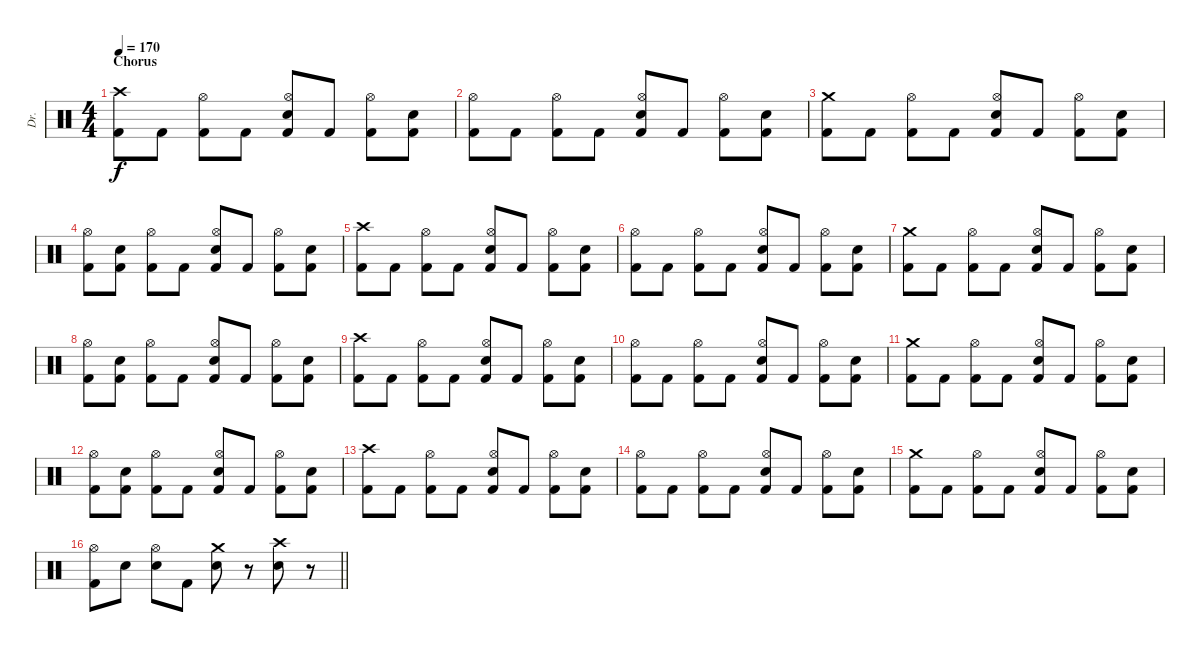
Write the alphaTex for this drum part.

\track ("Dr." "Dr.") {instrument percussion}
\staff {score}
\articulation defaults
\ts (4 4)
\section ("" "Chorus")
\tempo 170
\clef neutral
\ks c
("Crash high (hit)" "Kick (hit) 2").8{dy f} "Kick (hit) 2".8 ("Hi-Hat (open)" "Kick (hit) 2").8 "Kick (hit) 2".8 ("Hi-Hat (open)" "Electric Snare (hit)" "Kick (hit) 2").8 "Kick (hit) 2".8 ("Hi-Hat (open)" "Kick (hit) 2").8 ("Electric Snare (hit)" "Kick (hit) 2").8 |
("Hi-Hat (open)" "Kick (hit) 2").8 "Kick (hit) 2".8 ("Hi-Hat (open)" "Kick (hit) 2").8 "Kick (hit) 2".8 ("Hi-Hat (open)" "Electric Snare (hit)" "Kick (hit) 2").8 "Kick (hit) 2".8 ("Hi-Hat (open)" "Kick (hit) 2").8 ("Electric Snare (hit)" "Kick (hit) 2").8 |
("Crash medium (hit)" "Kick (hit) 2").8 "Kick (hit) 2".8 ("Hi-Hat (open)" "Kick (hit) 2").8 "Kick (hit) 2".8 ("Hi-Hat (open)" "Electric Snare (hit)" "Kick (hit) 2").8 "Kick (hit) 2".8 ("Hi-Hat (open)" "Kick (hit) 2").8 ("Electric Snare (hit)" "Kick (hit) 2").8 |
("Hi-Hat (open)" "Kick (hit) 2").8 ("Electric Snare (hit)" "Kick (hit) 2").8 ("Hi-Hat (open)" "Kick (hit) 2").8 "Kick (hit) 2".8 ("Hi-Hat (open)" "Electric Snare (hit)" "Kick (hit) 2").8 "Kick (hit) 2".8 ("Hi-Hat (open)" "Kick (hit) 2").8 ("Electric Snare (hit)" "Kick (hit) 2").8 |
("Crash high (hit)" "Kick (hit) 2").8 "Kick (hit) 2".8 ("Hi-Hat (open)" "Kick (hit) 2").8 "Kick (hit) 2".8 ("Hi-Hat (open)" "Electric Snare (hit)" "Kick (hit) 2").8 "Kick (hit) 2".8 ("Hi-Hat (open)" "Kick (hit) 2").8 ("Electric Snare (hit)" "Kick (hit) 2").8 |
("Hi-Hat (open)" "Kick (hit) 2").8 "Kick (hit) 2".8 ("Hi-Hat (open)" "Kick (hit) 2").8 "Kick (hit) 2".8 ("Hi-Hat (open)" "Electric Snare (hit)" "Kick (hit) 2").8 "Kick (hit) 2".8 ("Hi-Hat (open)" "Kick (hit) 2").8 ("Electric Snare (hit)" "Kick (hit) 2").8 |
("Crash medium (hit)" "Kick (hit) 2").8 "Kick (hit) 2".8 ("Hi-Hat (open)" "Kick (hit) 2").8 "Kick (hit) 2".8 ("Hi-Hat (open)" "Electric Snare (hit)" "Kick (hit) 2").8 "Kick (hit) 2".8 ("Hi-Hat (open)" "Kick (hit) 2").8 ("Electric Snare (hit)" "Kick (hit) 2").8 |
("Hi-Hat (open)" "Kick (hit) 2").8 ("Electric Snare (hit)" "Kick (hit) 2").8 ("Hi-Hat (open)" "Kick (hit) 2").8 "Kick (hit) 2".8 ("Hi-Hat (open)" "Electric Snare (hit)" "Kick (hit) 2").8 "Kick (hit) 2".8 ("Hi-Hat (open)" "Kick (hit) 2").8 ("Electric Snare (hit)" "Kick (hit) 2").8 |
("Crash high (hit)" "Kick (hit) 2").8 "Kick (hit) 2".8 ("Hi-Hat (open)" "Kick (hit) 2").8 "Kick (hit) 2".8 ("Hi-Hat (open)" "Electric Snare (hit)" "Kick (hit) 2").8 "Kick (hit) 2".8 ("Hi-Hat (open)" "Kick (hit) 2").8 ("Electric Snare (hit)" "Kick (hit) 2").8 |
("Hi-Hat (open)" "Kick (hit) 2").8 "Kick (hit) 2".8 ("Hi-Hat (open)" "Kick (hit) 2").8 "Kick (hit) 2".8 ("Hi-Hat (open)" "Electric Snare (hit)" "Kick (hit) 2").8 "Kick (hit) 2".8 ("Hi-Hat (open)" "Kick (hit) 2").8 ("Electric Snare (hit)" "Kick (hit) 2").8 |
("Crash medium (hit)" "Kick (hit) 2").8 "Kick (hit) 2".8 ("Hi-Hat (open)" "Kick (hit) 2").8 "Kick (hit) 2".8 ("Hi-Hat (open)" "Electric Snare (hit)" "Kick (hit) 2").8 "Kick (hit) 2".8 ("Hi-Hat (open)" "Kick (hit) 2").8 ("Electric Snare (hit)" "Kick (hit) 2").8 |
("Hi-Hat (open)" "Kick (hit) 2").8 ("Electric Snare (hit)" "Kick (hit) 2").8 ("Hi-Hat (open)" "Kick (hit) 2").8 "Kick (hit) 2".8 ("Hi-Hat (open)" "Electric Snare (hit)" "Kick (hit) 2").8 "Kick (hit) 2".8 ("Hi-Hat (open)" "Kick (hit) 2").8 ("Electric Snare (hit)" "Kick (hit) 2").8 |
("Crash high (hit)" "Kick (hit) 2").8 "Kick (hit) 2".8 ("Hi-Hat (open)" "Kick (hit) 2").8 "Kick (hit) 2".8 ("Hi-Hat (open)" "Electric Snare (hit)" "Kick (hit) 2").8 "Kick (hit) 2".8 ("Hi-Hat (open)" "Kick (hit) 2").8 ("Electric Snare (hit)" "Kick (hit) 2").8 |
("Hi-Hat (open)" "Kick (hit) 2").8 "Kick (hit) 2".8 ("Hi-Hat (open)" "Kick (hit) 2").8 "Kick (hit) 2".8 ("Hi-Hat (open)" "Electric Snare (hit)" "Kick (hit) 2").8 "Kick (hit) 2".8 ("Hi-Hat (open)" "Kick (hit) 2").8 ("Electric Snare (hit)" "Kick (hit) 2").8 |
("Crash medium (hit)" "Kick (hit) 2").8 "Kick (hit) 2".8 ("Hi-Hat (open)" "Kick (hit) 2").8 "Kick (hit) 2".8 ("Hi-Hat (open)" "Electric Snare (hit)" "Kick (hit) 2").8 "Kick (hit) 2".8 ("Hi-Hat (open)" "Kick (hit) 2").8 ("Electric Snare (hit)" "Kick (hit) 2").8 |
\barLineRight lightlight
("Hi-Hat (open)" "Kick (hit) 2").8 "Electric Snare (hit)".8 ("Hi-Hat (open)" "Electric Snare (hit)").8 "Kick (hit) 2".8 ("Crash medium (hit)" "Electric Snare (hit)").8 r.8 ("Crash high (hit)" "Electric Snare (hit)").8 r.8
